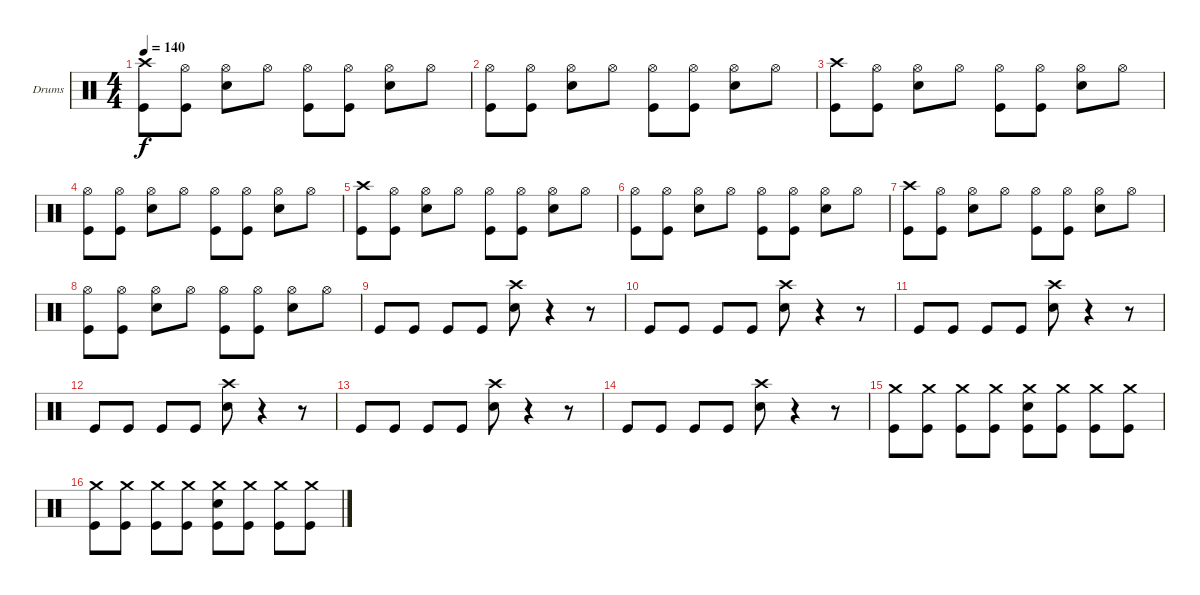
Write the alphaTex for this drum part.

\defaultSystemsLayout 4
\bracketExtendMode groupsimilarinstruments
\firstSystemTrackNameOrientation horizontal
\otherSystemsTrackNameOrientation horizontal
\track ("Drumkit" "Drums") {instrument percussion}
\staff {score}
\articulation defaults
\ts (4 4)
\tempo 140
\clef neutral
\ks c
("Crash high (hit)" "Kick (hit)").8{dy f} ("Hi-Hat (open)" "Kick (hit)").8 ("Hi-Hat (open)" "Snare (hit) 2").8 "Hi-Hat (open)".8 ("Hi-Hat (open)" "Kick (hit)").8 ("Hi-Hat (open)" "Kick (hit)").8 ("Hi-Hat (open)" "Snare (hit) 2").8 "Hi-Hat (open)".8 |
("Kick (hit)" "Hi-Hat (open)").8 ("Hi-Hat (open)" "Kick (hit)").8 ("Hi-Hat (open)" "Snare (hit) 2").8 "Hi-Hat (open)".8 ("Hi-Hat (open)" "Kick (hit)").8 ("Hi-Hat (open)" "Kick (hit)").8 ("Hi-Hat (open)" "Snare (hit) 2").8 "Hi-Hat (open)".8 |
("Crash high (hit)" "Kick (hit)").8 ("Hi-Hat (open)" "Kick (hit)").8 ("Hi-Hat (open)" "Snare (hit) 2").8 "Hi-Hat (open)".8 ("Hi-Hat (open)" "Kick (hit)").8 ("Hi-Hat (open)" "Kick (hit)").8 ("Hi-Hat (open)" "Snare (hit) 2").8 "Hi-Hat (open)".8 |
("Kick (hit)" "Hi-Hat (open)").8 ("Hi-Hat (open)" "Kick (hit)").8 ("Hi-Hat (open)" "Snare (hit) 2").8 "Hi-Hat (open)".8 ("Hi-Hat (open)" "Kick (hit)").8 ("Hi-Hat (open)" "Kick (hit)").8 ("Hi-Hat (open)" "Snare (hit) 2").8 "Hi-Hat (open)".8 |
("Crash high (hit)" "Kick (hit)").8 ("Hi-Hat (open)" "Kick (hit)").8 ("Hi-Hat (open)" "Snare (hit) 2").8 "Hi-Hat (open)".8 ("Hi-Hat (open)" "Kick (hit)").8 ("Hi-Hat (open)" "Kick (hit)").8 ("Hi-Hat (open)" "Snare (hit) 2").8 "Hi-Hat (open)".8 |
("Kick (hit)" "Hi-Hat (open)").8 ("Hi-Hat (open)" "Kick (hit)").8 ("Hi-Hat (open)" "Snare (hit) 2").8 "Hi-Hat (open)".8 ("Hi-Hat (open)" "Kick (hit)").8 ("Hi-Hat (open)" "Kick (hit)").8 ("Hi-Hat (open)" "Snare (hit) 2").8 "Hi-Hat (open)".8 |
("Crash high (hit)" "Kick (hit)").8 ("Hi-Hat (open)" "Kick (hit)").8 ("Hi-Hat (open)" "Snare (hit) 2").8 "Hi-Hat (open)".8 ("Hi-Hat (open)" "Kick (hit)").8 ("Hi-Hat (open)" "Kick (hit)").8 ("Hi-Hat (open)" "Snare (hit) 2").8 "Hi-Hat (open)".8 |
("Kick (hit)" "Hi-Hat (open)").8 ("Hi-Hat (open)" "Kick (hit)").8 ("Hi-Hat (open)" "Snare (hit) 2").8 "Hi-Hat (open)".8 ("Hi-Hat (open)" "Kick (hit)").8 ("Hi-Hat (open)" "Kick (hit)").8 ("Hi-Hat (open)" "Snare (hit) 2").8 "Hi-Hat (open)".8 |
"Kick (hit)".8 "Kick (hit)".8 "Kick (hit)".8 "Kick (hit)".8 ("Snare (hit) 2" "Crash high (hit)").8 r.4 r.8 |
"Kick (hit)".8 "Kick (hit)".8 "Kick (hit)".8 "Kick (hit)".8 ("Snare (hit) 2" "Crash high (hit)").8 r.4 r.8 |
"Kick (hit)".8 "Kick (hit)".8 "Kick (hit)".8 "Kick (hit)".8 ("Snare (hit) 2" "Crash high (hit)").8 r.4 r.8 |
"Kick (hit)".8 "Kick (hit)".8 "Kick (hit)".8 "Kick (hit)".8 ("Snare (hit) 2" "Crash high (hit)").8 r.4 r.8 |
"Kick (hit)".8 "Kick (hit)".8 "Kick (hit)".8 "Kick (hit)".8 ("Snare (hit) 2" "Crash high (hit)").8 r.4 r.8 |
"Kick (hit)".8 "Kick (hit)".8 "Kick (hit)".8 "Kick (hit)".8 ("Snare (hit) 2" "Crash high (hit)").8 r.4 r.8 |
("Kick (hit)" "Crash medium (hit)").8 ("Kick (hit)" "Crash medium (hit)").8 ("Kick (hit)" "Crash medium (hit)").8 ("Kick (hit)" "Crash medium (hit)").8 ("Snare (hit) 2" "Kick (hit)" "Crash medium (hit)").8 ("Kick (hit)" "Crash medium (hit)").8 ("Kick (hit)" "Crash medium (hit)").8 ("Kick (hit)" "Crash medium (hit)").8 |
("Kick (hit)" "Crash medium (hit)").8 ("Kick (hit)" "Crash medium (hit)").8 ("Kick (hit)" "Crash medium (hit)").8 ("Kick (hit)" "Crash medium (hit)").8 ("Snare (hit) 2" "Kick (hit)" "Crash medium (hit)").8 ("Kick (hit)" "Crash medium (hit)").8 ("Kick (hit)" "Crash medium (hit)").8 ("Kick (hit)" "Crash medium (hit)").8
